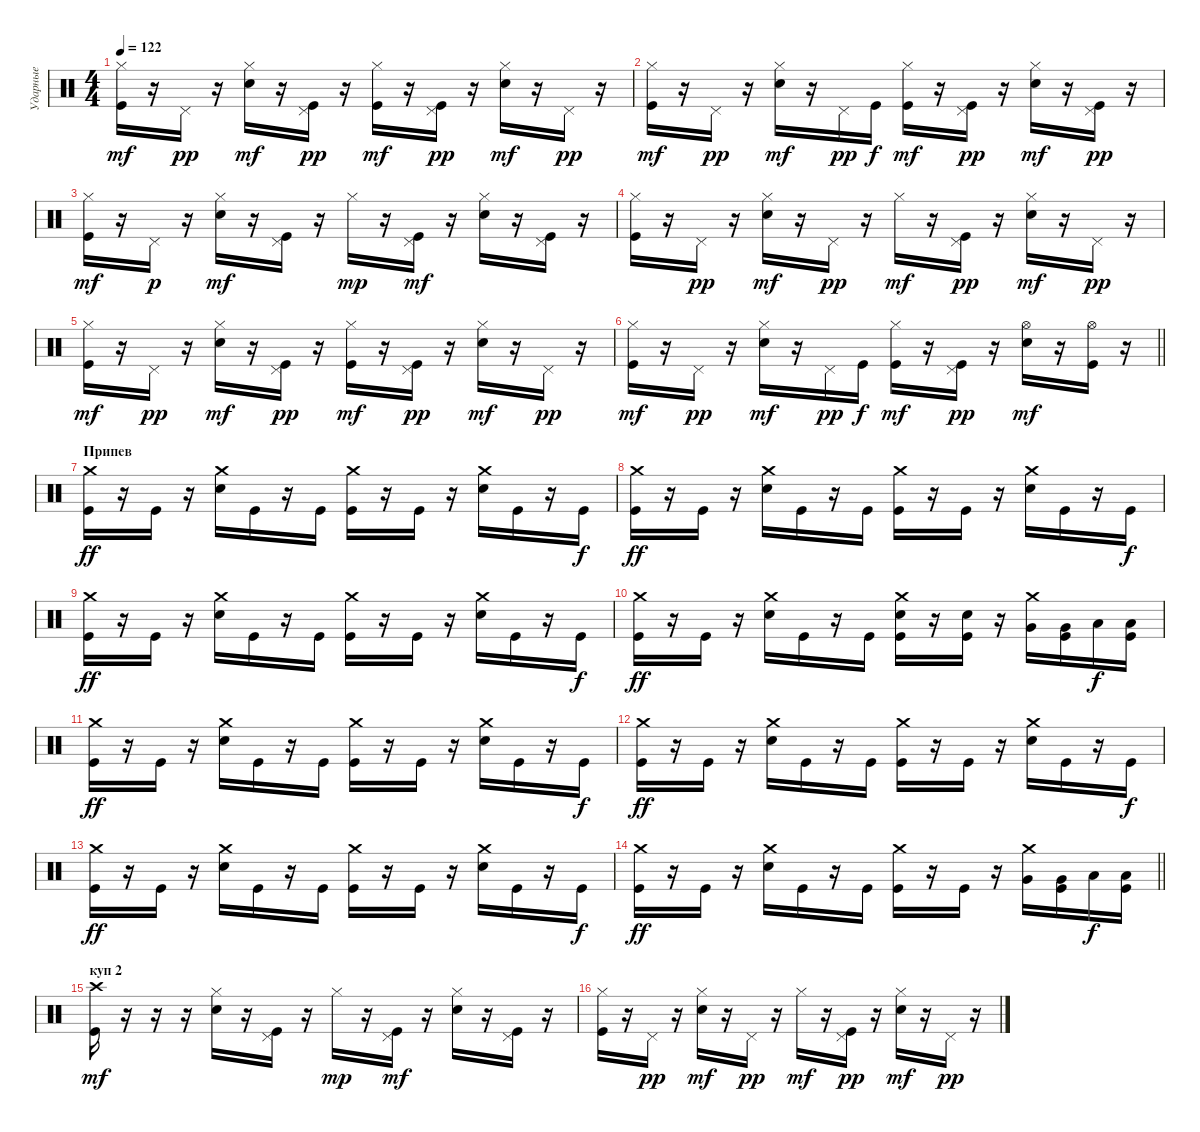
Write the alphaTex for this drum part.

\track ("Ударные" "Ударные") {instrument percussion}
\staff {score}
\articulation defaults
\ts (4 4)
\tempo 122
\clef neutral
\ks c
("Hi-Hat (closed)" "Kick (hit)").16{dy mf} r.16 "Pedal Hi-Hat (hit)".16{dy pp} r.16 ("Hi-Hat (closed)" "Electric Snare (hit)").16{dy mf} r.16 ("Pedal Hi-Hat (hit)" "Kick (hit)").16{dy pp} r.16 ("Hi-Hat (closed)" "Kick (hit)").16{dy mf} r.16 ("Pedal Hi-Hat (hit)" "Kick (hit)").16{dy pp} r.16 ("Hi-Hat (closed)" "Electric Snare (hit)").16{dy mf} r.16 "Pedal Hi-Hat (hit)".16{dy pp} r.16 |
("Hi-Hat (closed)" "Kick (hit)").16{dy mf} r.16 "Pedal Hi-Hat (hit)".16{dy pp} r.16 ("Hi-Hat (closed)" "Electric Snare (hit)").16{dy mf} r.16 "Pedal Hi-Hat (hit)".16{dy pp} "Kick (hit)".16{dy f} ("Hi-Hat (closed)" "Kick (hit)").16{dy mf} r.16 ("Pedal Hi-Hat (hit)" "Kick (hit)").16{dy pp} r.16 ("Hi-Hat (closed)" "Electric Snare (hit)").16{dy mf} r.16 ("Pedal Hi-Hat (hit)" "Kick (hit)").16{dy pp} r.16 |
("Hi-Hat (closed)" "Kick (hit)").16{dy mf} r.16 "Pedal Hi-Hat (hit)".16{dy p} r.16 ("Hi-Hat (closed)" "Electric Snare (hit)").16{dy mf} r.16 ("Pedal Hi-Hat (hit)" "Kick (hit)").16 r.16 "Hi-Hat (closed)".16{dy mp} r.16 ("Pedal Hi-Hat (hit)" "Kick (hit)").16{dy mf} r.16 ("Hi-Hat (closed)" "Electric Snare (hit)").16 r.16 ("Pedal Hi-Hat (hit)" "Kick (hit)").16 r.16 |
("Hi-Hat (closed)" "Kick (hit)").16 r.16 "Pedal Hi-Hat (hit)".16{dy pp} r.16 ("Hi-Hat (closed)" "Electric Snare (hit)").16{dy mf} r.16 "Pedal Hi-Hat (hit)".16{dy pp} r.16 "Hi-Hat (closed)".16{dy mf} r.16 ("Pedal Hi-Hat (hit)" "Kick (hit)").16{dy pp} r.16 ("Hi-Hat (closed)" "Electric Snare (hit)").16{dy mf} r.16 "Pedal Hi-Hat (hit)".16{dy pp} r.16 |
("Hi-Hat (closed)" "Kick (hit)").16{dy mf} r.16 "Pedal Hi-Hat (hit)".16{dy pp} r.16 ("Hi-Hat (closed)" "Electric Snare (hit)").16{dy mf} r.16 ("Pedal Hi-Hat (hit)" "Kick (hit)").16{dy pp} r.16 ("Hi-Hat (closed)" "Kick (hit)").16{dy mf} r.16 ("Pedal Hi-Hat (hit)" "Kick (hit)").16{dy pp} r.16 ("Hi-Hat (closed)" "Electric Snare (hit)").16{dy mf} r.16 "Pedal Hi-Hat (hit)".16{dy pp} r.16 |
\barLineRight lightlight
("Hi-Hat (closed)" "Kick (hit)").16{dy mf} r.16 "Pedal Hi-Hat (hit)".16{dy pp} r.16 ("Hi-Hat (closed)" "Electric Snare (hit)").16{dy mf} r.16 "Pedal Hi-Hat (hit)".16{dy pp} "Kick (hit)".16{dy f} ("Hi-Hat (closed)" "Kick (hit)").16{dy mf} r.16 ("Pedal Hi-Hat (hit)" "Kick (hit)").16{dy pp} r.16 ("Hi-Hat (open)" "Electric Snare (hit)").16{dy mf} r.16 ("Hi-Hat (open)" "Kick (hit)").16 r.16 |
\section ("" "Припев")
("Crash medium (hit)" "Kick (hit)").16{dy ff} r.16 "Kick (hit)".16 r.16 ("Crash medium (hit)" "Electric Snare (hit)").16 "Kick (hit)".16 r.16 "Kick (hit)".16 ("Crash medium (hit)" "Kick (hit)").16 r.16 "Kick (hit)".16 r.16 ("Crash medium (hit)" "Electric Snare (hit)").16 "Kick (hit)".16 r.16 "Kick (hit)".16{dy f} |
("Crash medium (hit)" "Kick (hit)").16{dy ff} r.16 "Kick (hit)".16 r.16 ("Crash medium (hit)" "Electric Snare (hit)").16 "Kick (hit)".16 r.16 "Kick (hit)".16 ("Crash medium (hit)" "Kick (hit)").16 r.16 "Kick (hit)".16 r.16 ("Crash medium (hit)" "Electric Snare (hit)").16 "Kick (hit)".16 r.16 "Kick (hit)".16{dy f} |
("Crash medium (hit)" "Kick (hit)").16{dy ff} r.16 "Kick (hit)".16 r.16 ("Crash medium (hit)" "Electric Snare (hit)").16 "Kick (hit)".16 r.16 "Kick (hit)".16 ("Crash medium (hit)" "Kick (hit)").16 r.16 "Kick (hit)".16 r.16 ("Crash medium (hit)" "Electric Snare (hit)").16 "Kick (hit)".16 r.16 "Kick (hit)".16{dy f} |
("Crash medium (hit)" "Kick (hit)").16{dy ff} r.16 "Kick (hit)".16 r.16 ("Crash medium (hit)" "Electric Snare (hit)").16 "Kick (hit)".16 r.16 "Kick (hit)".16 ("Crash medium (hit)" "Electric Snare (hit)" "Kick (hit)").16 r.16 ("Electric Snare (hit)" "Kick (hit)").16 r.16 ("Crash medium (hit)" "Very Low Tom (hit)").16 ("Very Low Tom (hit)" "Kick (hit)").16 "Low Floor Tom (hit)".16{dy f} ("Low Floor Tom (hit)" "Kick (hit)").16 |
("Crash medium (hit)" "Kick (hit)").16{dy ff} r.16 "Kick (hit)".16 r.16 ("Crash medium (hit)" "Electric Snare (hit)").16 "Kick (hit)".16 r.16 "Kick (hit)".16 ("Crash medium (hit)" "Kick (hit)").16 r.16 "Kick (hit)".16 r.16 ("Crash medium (hit)" "Electric Snare (hit)").16 "Kick (hit)".16 r.16 "Kick (hit)".16{dy f} |
("Crash medium (hit)" "Kick (hit)").16{dy ff} r.16 "Kick (hit)".16 r.16 ("Crash medium (hit)" "Electric Snare (hit)").16 "Kick (hit)".16 r.16 "Kick (hit)".16 ("Crash medium (hit)" "Kick (hit)").16 r.16 "Kick (hit)".16 r.16 ("Crash medium (hit)" "Electric Snare (hit)").16 "Kick (hit)".16 r.16 "Kick (hit)".16{dy f} |
("Crash medium (hit)" "Kick (hit)").16{dy ff} r.16 "Kick (hit)".16 r.16 ("Crash medium (hit)" "Electric Snare (hit)").16 "Kick (hit)".16 r.16 "Kick (hit)".16 ("Crash medium (hit)" "Kick (hit)").16 r.16 "Kick (hit)".16 r.16 ("Crash medium (hit)" "Electric Snare (hit)").16 "Kick (hit)".16 r.16 "Kick (hit)".16{dy f} |
\barLineRight lightlight
("Crash medium (hit)" "Kick (hit)").16{dy ff} r.16 "Kick (hit)".16 r.16 ("Crash medium (hit)" "Electric Snare (hit)").16 "Kick (hit)".16 r.16 "Kick (hit)".16 ("Crash medium (hit)" "Kick (hit)").16 r.16 "Kick (hit)".16 r.16 ("Crash medium (hit)" "Very Low Tom (hit)").16 ("Very Low Tom (hit)" "Kick (hit)").16 "Low Floor Tom (hit)".16{dy f} ("Low Floor Tom (hit)" "Kick (hit)").16 |
\section ("" "куп 2")
("Crash high (hit)" "Kick (hit)").16{dy mf} r.16 r.16 r.16 ("Hi-Hat (closed)" "Electric Snare (hit)").16 r.16 ("Pedal Hi-Hat (hit)" "Kick (hit)").16 r.16 "Hi-Hat (closed)".16{dy mp} r.16 ("Pedal Hi-Hat (hit)" "Kick (hit)").16{dy mf} r.16 ("Hi-Hat (closed)" "Electric Snare (hit)").16 r.16 ("Pedal Hi-Hat (hit)" "Kick (hit)").16 r.16 |
("Hi-Hat (closed)" "Kick (hit)").16 r.16 "Pedal Hi-Hat (hit)".16{dy pp} r.16 ("Hi-Hat (closed)" "Electric Snare (hit)").16{dy mf} r.16 "Pedal Hi-Hat (hit)".16{dy pp} r.16 "Hi-Hat (closed)".16{dy mf} r.16 ("Pedal Hi-Hat (hit)" "Kick (hit)").16{dy pp} r.16 ("Hi-Hat (closed)" "Electric Snare (hit)").16{dy mf} r.16 "Pedal Hi-Hat (hit)".16{dy pp} r.16
